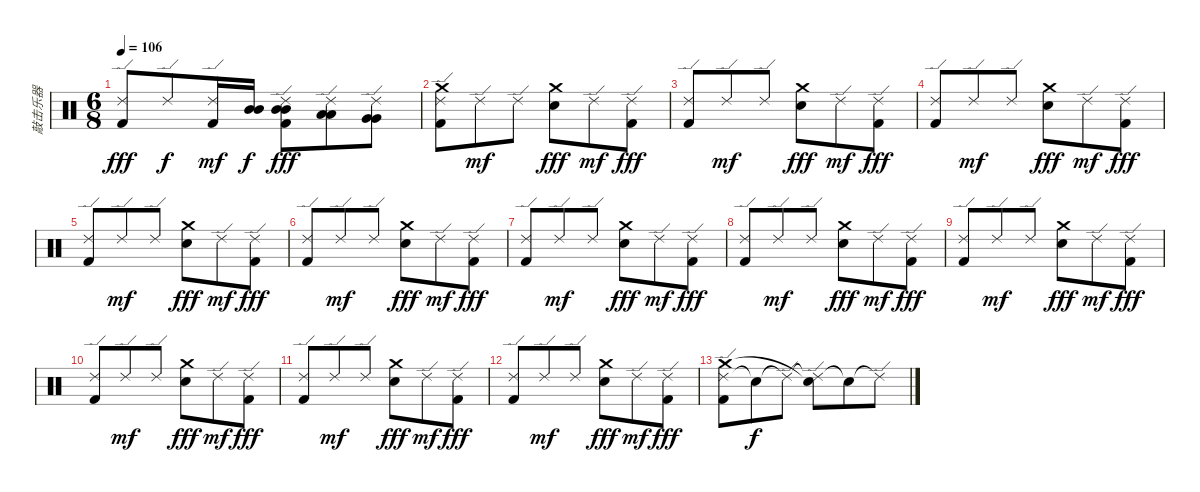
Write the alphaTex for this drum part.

\track ("敲击乐器" "敲击乐器") {instrument percussion}
\staff {score}
\articulation defaults
\ts (6 8)
\tempo 106
\clef neutral
\ks c
("Ride (edge) 2" "Kick (hit) 2").8{dy fff} "Ride (edge) 2".8{dy f} ("Ride (edge) 2" "Kick (hit) 2").16{dy mf} ("Mid Tom (hit)" "Mid Tom (hit)").16{dy f} ("Ride (edge) 2" "Mid Tom (hit)" "Mid Tom (hit)" "Kick (hit) 2").8{dy fff} ("Ride (edge) 2" "Low Tom (hit)" "Low Tom (hit)").8 ("Ride (edge) 2" "Very Low Tom (hit)" "Very Low Tom (hit)").8 |
("Ride (edge) 2" "Crash medium (hit)" "Kick (hit) 2").8 "Ride (edge) 2".8{dy mf} "Ride (edge) 2".8 ("Crash medium (hit)" "Snare (hit) 2").8{dy fff} "Ride (edge) 2".8{dy mf} ("Ride (edge) 2" "Kick (hit) 2").8{dy fff} |
("Ride (edge) 2" "Kick (hit) 2").8 "Ride (edge) 2".8{dy mf} "Ride (edge) 2".8 ("Crash medium (hit)" "Snare (hit) 2").8{dy fff} "Ride (edge) 2".8{dy mf} ("Ride (edge) 2" "Kick (hit) 2").8{dy fff} |
("Ride (edge) 2" "Kick (hit) 2").8 "Ride (edge) 2".8{dy mf} "Ride (edge) 2".8 ("Crash medium (hit)" "Snare (hit) 2").8{dy fff} "Ride (edge) 2".8{dy mf} ("Ride (edge) 2" "Kick (hit) 2").8{dy fff} |
("Ride (edge) 2" "Kick (hit) 2").8 "Ride (edge) 2".8{dy mf} "Ride (edge) 2".8 ("Crash medium (hit)" "Snare (hit) 2").8{dy fff} "Ride (edge) 2".8{dy mf} ("Ride (edge) 2" "Kick (hit) 2").8{dy fff} |
("Ride (edge) 2" "Kick (hit) 2").8 "Ride (edge) 2".8{dy mf} "Ride (edge) 2".8 ("Crash medium (hit)" "Snare (hit) 2").8{dy fff} "Ride (edge) 2".8{dy mf} ("Ride (edge) 2" "Kick (hit) 2").8{dy fff} |
("Ride (edge) 2" "Kick (hit) 2").8 "Ride (edge) 2".8{dy mf} "Ride (edge) 2".8 ("Crash medium (hit)" "Snare (hit) 2").8{dy fff} "Ride (edge) 2".8{dy mf} ("Ride (edge) 2" "Kick (hit) 2").8{dy fff} |
("Ride (edge) 2" "Kick (hit) 2").8 "Ride (edge) 2".8{dy mf} "Ride (edge) 2".8 ("Crash medium (hit)" "Snare (hit) 2").8{dy fff} "Ride (edge) 2".8{dy mf} ("Ride (edge) 2" "Kick (hit) 2").8{dy fff} |
("Ride (edge) 2" "Kick (hit) 2").8 "Ride (edge) 2".8{dy mf} "Ride (edge) 2".8 ("Crash medium (hit)" "Snare (hit) 2").8{dy fff} "Ride (edge) 2".8{dy mf} ("Ride (edge) 2" "Kick (hit) 2").8{dy fff} |
("Ride (edge) 2" "Kick (hit) 2").8 "Ride (edge) 2".8{dy mf} "Ride (edge) 2".8 ("Crash medium (hit)" "Snare (hit) 2").8{dy fff} "Ride (edge) 2".8{dy mf} ("Ride (edge) 2" "Kick (hit) 2").8{dy fff} |
("Ride (edge) 2" "Kick (hit) 2").8 "Ride (edge) 2".8{dy mf} "Ride (edge) 2".8 ("Crash medium (hit)" "Snare (hit) 2").8{dy fff} "Ride (edge) 2".8{dy mf} ("Ride (edge) 2" "Kick (hit) 2").8{dy fff} |
("Ride (edge) 2" "Kick (hit) 2").8 "Ride (edge) 2".8{dy mf} "Ride (edge) 2".8 ("Crash medium (hit)" "Snare (hit) 2").8{dy fff} "Ride (edge) 2".8{dy mf} ("Ride (edge) 2" "Kick (hit) 2").8{dy fff} |
("Ride (edge) 2" "Crash medium (hit)" "Kick (hit) 2").8 "Snare (hit)"{t}.8{dy f} "Ride (edge) 2"{t}.8 ("Ride (edge) 2"{t} "Snare (hit) 2"{t}).8 "Snare (hit)"{t}.8 "Ride (edge) 2"{t}.8
